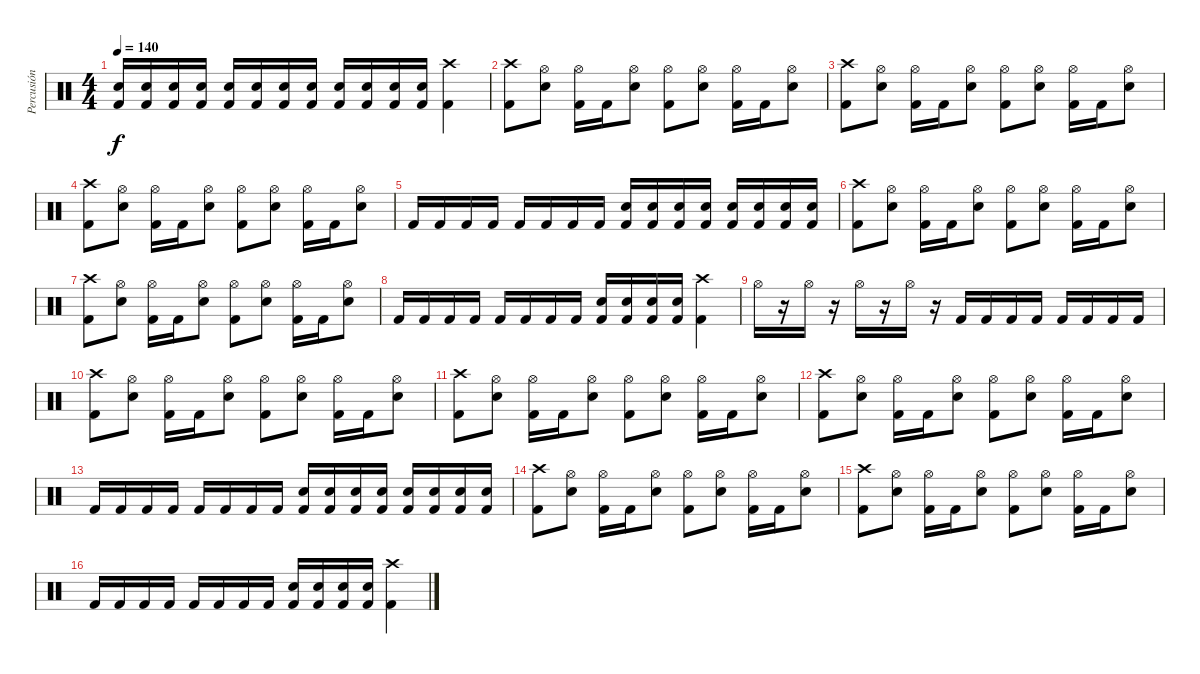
\track ("Percusión" "Percusión") {instrument percussion}
\staff {score}
\articulation defaults
\ts (4 4)
\tempo 140
\clef neutral
\ks c
("Electric Snare (hit)" "Kick (hit) 2").16{dy f} ("Electric Snare (hit)" "Kick (hit) 2").16 ("Electric Snare (hit)" "Kick (hit) 2").16 ("Electric Snare (hit)" "Kick (hit) 2").16 ("Electric Snare (hit)" "Kick (hit) 2").16 ("Electric Snare (hit)" "Kick (hit) 2").16 ("Electric Snare (hit)" "Kick (hit) 2").16 ("Electric Snare (hit)" "Kick (hit) 2").16 ("Electric Snare (hit)" "Kick (hit) 2").16 ("Electric Snare (hit)" "Kick (hit) 2").16 ("Electric Snare (hit)" "Kick (hit) 2").16 ("Electric Snare (hit)" "Kick (hit) 2").16 ("Crash high (hit)" "Kick (hit) 2").4 |
("Crash high (hit)" "Kick (hit) 2").8 ("Hi-Hat (open)" "Electric Snare (hit)").8 ("Hi-Hat (open)" "Kick (hit) 2").16 "Kick (hit) 2".16 ("Hi-Hat (open)" "Electric Snare (hit)").8 ("Hi-Hat (open)" "Kick (hit) 2").8 ("Hi-Hat (open)" "Electric Snare (hit)").8 ("Hi-Hat (open)" "Kick (hit) 2").16 "Kick (hit) 2".16 ("Hi-Hat (open)" "Electric Snare (hit)").8 |
("Crash high (hit)" "Kick (hit) 2").8 ("Hi-Hat (open)" "Electric Snare (hit)").8 ("Hi-Hat (open)" "Kick (hit) 2").16 "Kick (hit) 2".16 ("Hi-Hat (open)" "Electric Snare (hit)").8 ("Hi-Hat (open)" "Kick (hit) 2").8 ("Hi-Hat (open)" "Electric Snare (hit)").8 ("Hi-Hat (open)" "Kick (hit) 2").16 "Kick (hit) 2".16 ("Hi-Hat (open)" "Electric Snare (hit)").8 |
("Crash high (hit)" "Kick (hit) 2").8 ("Hi-Hat (open)" "Electric Snare (hit)").8 ("Hi-Hat (open)" "Kick (hit) 2").16 "Kick (hit) 2".16 ("Hi-Hat (open)" "Electric Snare (hit)").8 ("Hi-Hat (open)" "Kick (hit) 2").8 ("Hi-Hat (open)" "Electric Snare (hit)").8 ("Hi-Hat (open)" "Kick (hit) 2").16 "Kick (hit) 2".16 ("Hi-Hat (open)" "Electric Snare (hit)").8 |
"Kick (hit) 2".16 "Kick (hit) 2".16 "Kick (hit) 2".16 "Kick (hit) 2".16 "Kick (hit) 2".16 "Kick (hit) 2".16 "Kick (hit) 2".16 "Kick (hit) 2".16 ("Electric Snare (hit)" "Kick (hit) 2").16 ("Electric Snare (hit)" "Kick (hit) 2").16 ("Electric Snare (hit)" "Kick (hit) 2").16 ("Electric Snare (hit)" "Kick (hit) 2").16 ("Electric Snare (hit)" "Kick (hit) 2").16 ("Electric Snare (hit)" "Kick (hit) 2").16 ("Electric Snare (hit)" "Kick (hit) 2").16 ("Electric Snare (hit)" "Kick (hit) 2").16 |
("Crash high (hit)" "Kick (hit) 2").8 ("Hi-Hat (open)" "Electric Snare (hit)").8 ("Hi-Hat (open)" "Kick (hit) 2").16 "Kick (hit) 2".16 ("Hi-Hat (open)" "Electric Snare (hit)").8 ("Hi-Hat (open)" "Kick (hit) 2").8 ("Hi-Hat (open)" "Electric Snare (hit)").8 ("Hi-Hat (open)" "Kick (hit) 2").16 "Kick (hit) 2".16 ("Hi-Hat (open)" "Electric Snare (hit)").8 |
("Crash high (hit)" "Kick (hit) 2").8 ("Hi-Hat (open)" "Electric Snare (hit)").8 ("Hi-Hat (open)" "Kick (hit) 2").16 "Kick (hit) 2".16 ("Hi-Hat (open)" "Electric Snare (hit)").8 ("Hi-Hat (open)" "Kick (hit) 2").8 ("Hi-Hat (open)" "Electric Snare (hit)").8 ("Hi-Hat (open)" "Kick (hit) 2").16 "Kick (hit) 2".16 ("Hi-Hat (open)" "Electric Snare (hit)").8 |
"Kick (hit) 2".16 "Kick (hit) 2".16 "Kick (hit) 2".16 "Kick (hit) 2".16 "Kick (hit) 2".16 "Kick (hit) 2".16 "Kick (hit) 2".16 "Kick (hit) 2".16 ("Electric Snare (hit)" "Kick (hit) 2").16 ("Electric Snare (hit)" "Kick (hit) 2").16 ("Electric Snare (hit)" "Kick (hit) 2").16 ("Electric Snare (hit)" "Kick (hit) 2").16 ("Crash high (hit)" "Kick (hit) 2").4 |
"Hi-Hat (open)".16 r.16 "Hi-Hat (open)".16 r.16 "Hi-Hat (open)".16 r.16 "Hi-Hat (open)".16 r.16 "Kick (hit) 2".16 "Kick (hit) 2".16 "Kick (hit) 2".16 "Kick (hit) 2".16 "Kick (hit) 2".16 "Kick (hit) 2".16 "Kick (hit) 2".16 "Kick (hit) 2".16 |
("Crash high (hit)" "Kick (hit) 2").8 ("Hi-Hat (open)" "Electric Snare (hit)").8 ("Hi-Hat (open)" "Kick (hit) 2").16 "Kick (hit) 2".16 ("Hi-Hat (open)" "Electric Snare (hit)").8 ("Hi-Hat (open)" "Kick (hit) 2").8 ("Hi-Hat (open)" "Electric Snare (hit)").8 ("Hi-Hat (open)" "Kick (hit) 2").16 "Kick (hit) 2".16 ("Hi-Hat (open)" "Electric Snare (hit)").8 |
("Crash high (hit)" "Kick (hit) 2").8 ("Hi-Hat (open)" "Electric Snare (hit)").8 ("Hi-Hat (open)" "Kick (hit) 2").16 "Kick (hit) 2".16 ("Hi-Hat (open)" "Electric Snare (hit)").8 ("Hi-Hat (open)" "Kick (hit) 2").8 ("Hi-Hat (open)" "Electric Snare (hit)").8 ("Hi-Hat (open)" "Kick (hit) 2").16 "Kick (hit) 2".16 ("Hi-Hat (open)" "Electric Snare (hit)").8 |
("Crash high (hit)" "Kick (hit) 2").8 ("Hi-Hat (open)" "Electric Snare (hit)").8 ("Hi-Hat (open)" "Kick (hit) 2").16 "Kick (hit) 2".16 ("Hi-Hat (open)" "Electric Snare (hit)").8 ("Hi-Hat (open)" "Kick (hit) 2").8 ("Hi-Hat (open)" "Electric Snare (hit)").8 ("Hi-Hat (open)" "Kick (hit) 2").16 "Kick (hit) 2".16 ("Hi-Hat (open)" "Electric Snare (hit)").8 |
"Kick (hit) 2".16 "Kick (hit) 2".16 "Kick (hit) 2".16 "Kick (hit) 2".16 "Kick (hit) 2".16 "Kick (hit) 2".16 "Kick (hit) 2".16 "Kick (hit) 2".16 ("Electric Snare (hit)" "Kick (hit) 2").16 ("Electric Snare (hit)" "Kick (hit) 2").16 ("Electric Snare (hit)" "Kick (hit) 2").16 ("Electric Snare (hit)" "Kick (hit) 2").16 ("Electric Snare (hit)" "Kick (hit) 2").16 ("Electric Snare (hit)" "Kick (hit) 2").16 ("Electric Snare (hit)" "Kick (hit) 2").16 ("Electric Snare (hit)" "Kick (hit) 2").16 |
("Crash high (hit)" "Kick (hit) 2").8 ("Hi-Hat (open)" "Electric Snare (hit)").8 ("Hi-Hat (open)" "Kick (hit) 2").16 "Kick (hit) 2".16 ("Hi-Hat (open)" "Electric Snare (hit)").8 ("Hi-Hat (open)" "Kick (hit) 2").8 ("Hi-Hat (open)" "Electric Snare (hit)").8 ("Hi-Hat (open)" "Kick (hit) 2").16 "Kick (hit) 2".16 ("Hi-Hat (open)" "Electric Snare (hit)").8 |
("Crash high (hit)" "Kick (hit) 2").8 ("Hi-Hat (open)" "Electric Snare (hit)").8 ("Hi-Hat (open)" "Kick (hit) 2").16 "Kick (hit) 2".16 ("Hi-Hat (open)" "Electric Snare (hit)").8 ("Hi-Hat (open)" "Kick (hit) 2").8 ("Hi-Hat (open)" "Electric Snare (hit)").8 ("Hi-Hat (open)" "Kick (hit) 2").16 "Kick (hit) 2".16 ("Hi-Hat (open)" "Electric Snare (hit)").8 |
"Kick (hit) 2".16 "Kick (hit) 2".16 "Kick (hit) 2".16 "Kick (hit) 2".16 "Kick (hit) 2".16 "Kick (hit) 2".16 "Kick (hit) 2".16 "Kick (hit) 2".16 ("Electric Snare (hit)" "Kick (hit) 2").16 ("Electric Snare (hit)" "Kick (hit) 2").16 ("Electric Snare (hit)" "Kick (hit) 2").16 ("Electric Snare (hit)" "Kick (hit) 2").16 ("Crash high (hit)" "Kick (hit) 2").4
